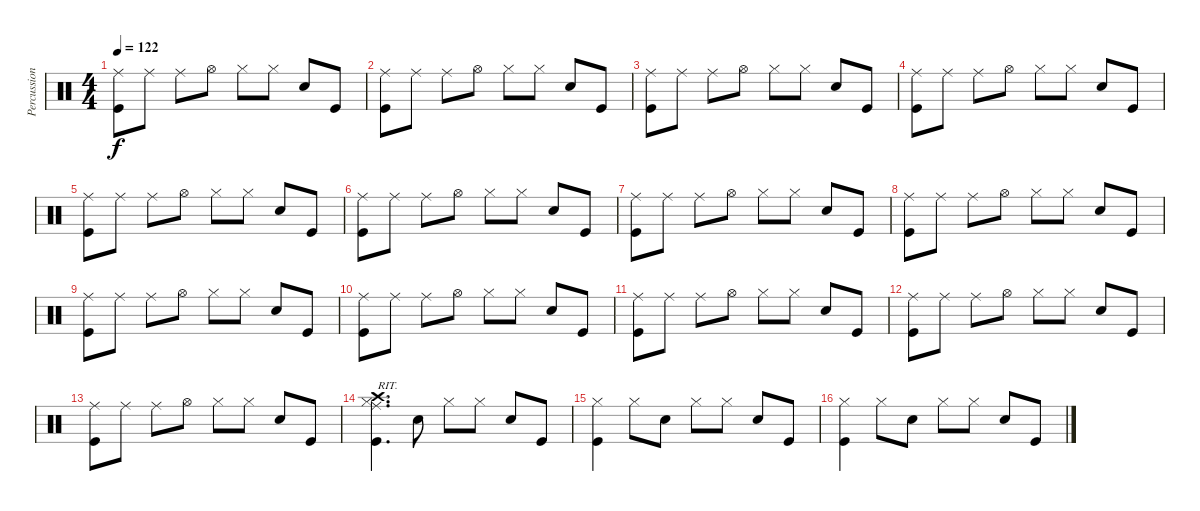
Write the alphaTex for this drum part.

\track ("Percussioni" "Percussion") {instrument percussion}
\staff {score}
\articulation defaults
\ts (4 4)
\tempo 122
\clef neutral
\ks c
("Ride (middle)" "Kick (hit)").8{dy f} "Ride (middle)".8 "Ride (middle)".8 "Hi-Hat (open)".8 "Hi-Hat (closed)".8 "Hi-Hat (closed)".8 "Snare (hit) 2".8 "Kick (hit)".8 |
("Ride (middle)" "Kick (hit)").8 "Ride (middle)".8 "Ride (middle)".8 "Hi-Hat (open)".8 "Hi-Hat (closed)".8 "Hi-Hat (closed)".8 "Snare (hit) 2".8 "Kick (hit)".8 |
("Ride (middle)" "Kick (hit)").8 "Ride (middle)".8 "Ride (middle)".8 "Hi-Hat (open)".8 "Hi-Hat (closed)".8 "Hi-Hat (closed)".8 "Snare (hit) 2".8 "Kick (hit)".8 |
("Ride (middle)" "Kick (hit)").8 "Ride (middle)".8 "Ride (middle)".8 "Hi-Hat (open)".8 "Hi-Hat (closed)".8 "Hi-Hat (closed)".8 "Snare (hit) 2".8 "Kick (hit)".8 |
("Ride (middle)" "Kick (hit)").8 "Ride (middle)".8 "Ride (middle)".8 "Hi-Hat (open)".8 "Hi-Hat (closed)".8 "Hi-Hat (closed)".8 "Snare (hit) 2".8 "Kick (hit)".8 |
("Ride (middle)" "Kick (hit)").8 "Ride (middle)".8 "Ride (middle)".8 "Hi-Hat (open)".8 "Hi-Hat (closed)".8 "Hi-Hat (closed)".8 "Snare (hit) 2".8 "Kick (hit)".8 |
("Ride (middle)" "Kick (hit)").8 "Ride (middle)".8 "Ride (middle)".8 "Hi-Hat (open)".8 "Hi-Hat (closed)".8 "Hi-Hat (closed)".8 "Snare (hit) 2".8 "Kick (hit)".8 |
("Ride (middle)" "Kick (hit)").8 "Ride (middle)".8 "Ride (middle)".8 "Hi-Hat (open)".8 "Hi-Hat (closed)".8 "Hi-Hat (closed)".8 "Snare (hit) 2".8 "Kick (hit)".8 |
("Ride (middle)" "Kick (hit)").8 "Ride (middle)".8 "Ride (middle)".8 "Hi-Hat (open)".8 "Hi-Hat (closed)".8 "Hi-Hat (closed)".8 "Snare (hit) 2".8 "Kick (hit)".8 |
("Ride (middle)" "Kick (hit)").8 "Ride (middle)".8 "Ride (middle)".8 "Hi-Hat (open)".8 "Hi-Hat (closed)".8 "Hi-Hat (closed)".8 "Snare (hit) 2".8 "Kick (hit)".8 |
("Ride (middle)" "Kick (hit)").8 "Ride (middle)".8 "Ride (middle)".8 "Hi-Hat (open)".8 "Hi-Hat (closed)".8 "Hi-Hat (closed)".8 "Snare (hit) 2".8 "Kick (hit)".8 |
("Ride (middle)" "Kick (hit)").8 "Ride (middle)".8 "Ride (middle)".8 "Hi-Hat (open)".8 "Hi-Hat (closed)".8 "Hi-Hat (closed)".8 "Snare (hit) 2".8 "Kick (hit)".8 |
("Ride (middle)" "Kick (hit)").8 "Ride (middle)".8 "Ride (middle)".8 "Hi-Hat (open)".8 "Hi-Hat (closed)".8 "Hi-Hat (closed)".8 "Snare (hit) 2".8 "Kick (hit)".8 |
("Crash high (hit)" "Ride (middle)" "Hi-Hat (closed)" "Kick (hit)").4{d txt "RIT."} "Snare (hit) 2".8 "Hi-Hat (closed)".8 "Hi-Hat (closed)".8 "Snare (hit) 2".8 "Kick (hit)".8 |
("Hi-Hat (closed)" "Kick (hit)").4 "Hi-Hat (closed)".8 "Snare (hit) 2".8 "Hi-Hat (closed)".8 "Hi-Hat (closed)".8 "Snare (hit) 2".8 "Kick (hit)".8 |
("Hi-Hat (closed)" "Kick (hit)").4 "Hi-Hat (closed)".8 "Snare (hit) 2".8 "Hi-Hat (closed)".8 "Hi-Hat (closed)".8 "Snare (hit) 2".8 "Kick (hit)".8
